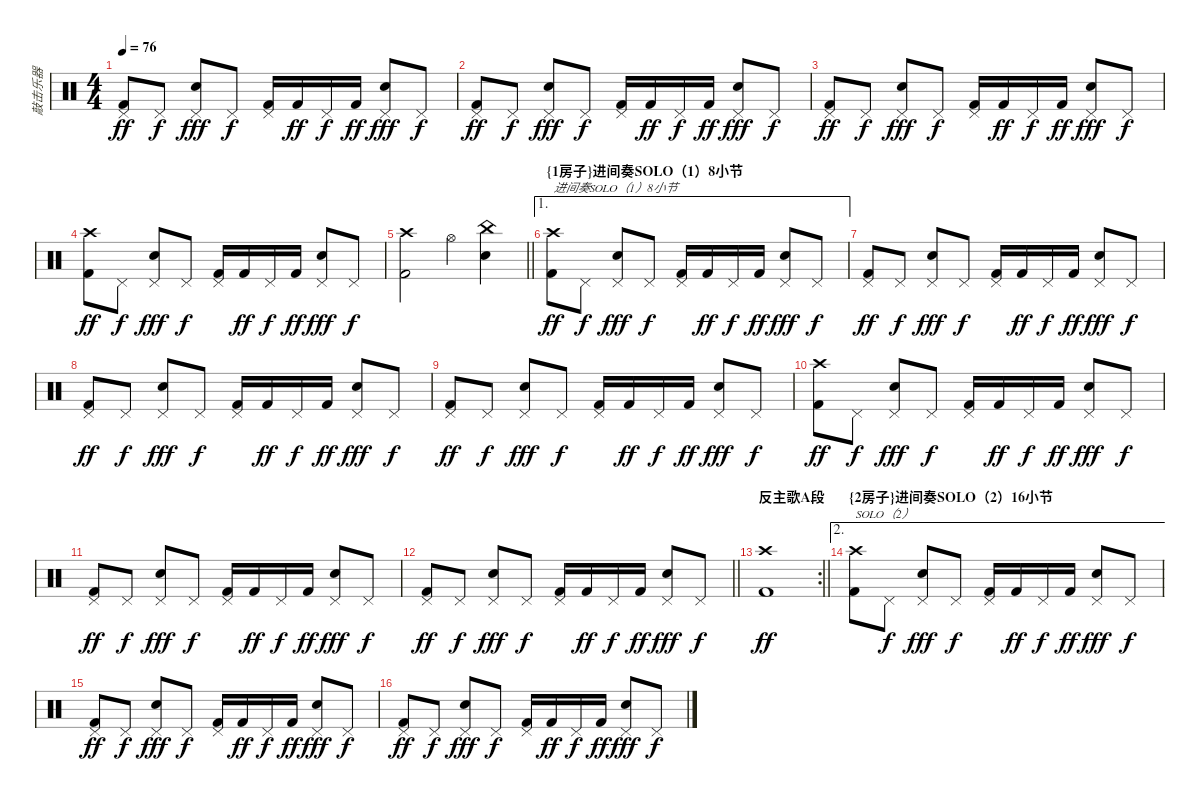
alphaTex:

\track ("敲击乐器" "敲击乐器") {instrument percussion}
\staff {score}
\articulation defaults
\ts (4 4)
\tempo 76
\clef neutral
\ks c
("Pedal Hi-Hat (hit)" "Kick (hit) 2").8{dy ff} "Pedal Hi-Hat (hit)".8{dy f} ("Pedal Hi-Hat (hit)" "Electric Snare (hit)").8{dy fff} "Pedal Hi-Hat (hit)".8{dy f} ("Pedal Hi-Hat (hit)" "Kick (hit) 2").16 "Kick (hit) 2".16{dy ff} "Pedal Hi-Hat (hit)".16{dy f} "Kick (hit) 2".16{dy ff} ("Pedal Hi-Hat (hit)" "Electric Snare (hit)").8{dy fff} "Pedal Hi-Hat (hit)".8{dy f} |
("Pedal Hi-Hat (hit)" "Kick (hit) 2").8{dy ff} "Pedal Hi-Hat (hit)".8{dy f} ("Pedal Hi-Hat (hit)" "Electric Snare (hit)").8{dy fff} "Pedal Hi-Hat (hit)".8{dy f} ("Pedal Hi-Hat (hit)" "Kick (hit) 2").16 "Kick (hit) 2".16{dy ff} "Pedal Hi-Hat (hit)".16{dy f} "Kick (hit) 2".16{dy ff} ("Pedal Hi-Hat (hit)" "Electric Snare (hit)").8{dy fff} "Pedal Hi-Hat (hit)".8{dy f} |
("Pedal Hi-Hat (hit)" "Kick (hit) 2").8{dy ff} "Pedal Hi-Hat (hit)".8{dy f} ("Pedal Hi-Hat (hit)" "Electric Snare (hit)").8{dy fff} "Pedal Hi-Hat (hit)".8{dy f} ("Pedal Hi-Hat (hit)" "Kick (hit) 2").16 "Kick (hit) 2".16{dy ff} "Pedal Hi-Hat (hit)".16{dy f} "Kick (hit) 2".16{dy ff} ("Pedal Hi-Hat (hit)" "Electric Snare (hit)").8{dy fff} "Pedal Hi-Hat (hit)".8{dy f} |
("Crash high (hit)" "Kick (hit) 2").8{dy ff} "Pedal Hi-Hat (hit)".8{dy f} ("Pedal Hi-Hat (hit)" "Electric Snare (hit)").8{dy fff} "Pedal Hi-Hat (hit)".8{dy f} ("Pedal Hi-Hat (hit)" "Kick (hit) 2").16 "Kick (hit) 2".16{dy ff} "Pedal Hi-Hat (hit)".16{dy f} "Kick (hit) 2".16{dy ff} ("Pedal Hi-Hat (hit)" "Electric Snare (hit)").8{dy fff} "Pedal Hi-Hat (hit)".8{dy f} |
\barLineRight lightlight
("Crash high (hit)" "Kick (hit) 2").2 "Hi-Hat (open)".4 ("China (hit)" "Electric Snare (hit)").4 |
\ae 1
\section ("" "{1房子}进间奏SOLO（1）8小节")
("Crash high (hit)" "Kick (hit) 2").8{txt "进间奏SOLO（1）8小节" dy ff} "Pedal Hi-Hat (hit)".8{dy f} ("Pedal Hi-Hat (hit)" "Electric Snare (hit)").8{dy fff} "Pedal Hi-Hat (hit)".8{dy f} ("Pedal Hi-Hat (hit)" "Kick (hit) 2").16 "Kick (hit) 2".16{dy ff} "Pedal Hi-Hat (hit)".16{dy f} "Kick (hit) 2".16{dy ff} ("Pedal Hi-Hat (hit)" "Electric Snare (hit)").8{dy fff} "Pedal Hi-Hat (hit)".8{dy f} |
("Pedal Hi-Hat (hit)" "Kick (hit) 2").8{dy ff} "Pedal Hi-Hat (hit)".8{dy f} ("Pedal Hi-Hat (hit)" "Electric Snare (hit)").8{dy fff} "Pedal Hi-Hat (hit)".8{dy f} ("Pedal Hi-Hat (hit)" "Kick (hit) 2").16 "Kick (hit) 2".16{dy ff} "Pedal Hi-Hat (hit)".16{dy f} "Kick (hit) 2".16{dy ff} ("Pedal Hi-Hat (hit)" "Electric Snare (hit)").8{dy fff} "Pedal Hi-Hat (hit)".8{dy f} |
("Pedal Hi-Hat (hit)" "Kick (hit) 2").8{dy ff} "Pedal Hi-Hat (hit)".8{dy f} ("Pedal Hi-Hat (hit)" "Electric Snare (hit)").8{dy fff} "Pedal Hi-Hat (hit)".8{dy f} ("Pedal Hi-Hat (hit)" "Kick (hit) 2").16 "Kick (hit) 2".16{dy ff} "Pedal Hi-Hat (hit)".16{dy f} "Kick (hit) 2".16{dy ff} ("Pedal Hi-Hat (hit)" "Electric Snare (hit)").8{dy fff} "Pedal Hi-Hat (hit)".8{dy f} |
("Pedal Hi-Hat (hit)" "Kick (hit) 2").8{dy ff} "Pedal Hi-Hat (hit)".8{dy f} ("Pedal Hi-Hat (hit)" "Electric Snare (hit)").8{dy fff} "Pedal Hi-Hat (hit)".8{dy f} ("Pedal Hi-Hat (hit)" "Kick (hit) 2").16 "Kick (hit) 2".16{dy ff} "Pedal Hi-Hat (hit)".16{dy f} "Kick (hit) 2".16{dy ff} ("Pedal Hi-Hat (hit)" "Electric Snare (hit)").8{dy fff} "Pedal Hi-Hat (hit)".8{dy f} |
("Crash high (hit)" "Kick (hit) 2").8{dy ff} "Pedal Hi-Hat (hit)".8{dy f} ("Pedal Hi-Hat (hit)" "Electric Snare (hit)").8{dy fff} "Pedal Hi-Hat (hit)".8{dy f} ("Pedal Hi-Hat (hit)" "Kick (hit) 2").16 "Kick (hit) 2".16{dy ff} "Pedal Hi-Hat (hit)".16{dy f} "Kick (hit) 2".16{dy ff} ("Pedal Hi-Hat (hit)" "Electric Snare (hit)").8{dy fff} "Pedal Hi-Hat (hit)".8{dy f} |
("Pedal Hi-Hat (hit)" "Kick (hit) 2").8{dy ff} "Pedal Hi-Hat (hit)".8{dy f} ("Pedal Hi-Hat (hit)" "Electric Snare (hit)").8{dy fff} "Pedal Hi-Hat (hit)".8{dy f} ("Pedal Hi-Hat (hit)" "Kick (hit) 2").16 "Kick (hit) 2".16{dy ff} "Pedal Hi-Hat (hit)".16{dy f} "Kick (hit) 2".16{dy ff} ("Pedal Hi-Hat (hit)" "Electric Snare (hit)").8{dy fff} "Pedal Hi-Hat (hit)".8{dy f} |
\barLineRight lightlight
("Pedal Hi-Hat (hit)" "Kick (hit) 2").8{dy ff} "Pedal Hi-Hat (hit)".8{dy f} ("Pedal Hi-Hat (hit)" "Electric Snare (hit)").8{dy fff} "Pedal Hi-Hat (hit)".8{dy f} ("Pedal Hi-Hat (hit)" "Kick (hit) 2").16 "Kick (hit) 2".16{dy ff} "Pedal Hi-Hat (hit)".16{dy f} "Kick (hit) 2".16{dy ff} ("Pedal Hi-Hat (hit)" "Electric Snare (hit)").8{dy fff} "Pedal Hi-Hat (hit)".8{dy f} |
\rc 2
\section ("" "反主歌A段")
\barLineRight lightlight
("Crash high (hit)" "Kick (hit) 2").1{dy ff} |
\ae 2
\section ("" "{2房子}进间奏SOLO（2）16小节")
("Crash high (hit)" "Kick (hit) 2").8{txt "SOLO（2）"} "Pedal Hi-Hat (hit)".8{dy f} ("Pedal Hi-Hat (hit)" "Electric Snare (hit)").8{dy fff} "Pedal Hi-Hat (hit)".8{dy f} ("Pedal Hi-Hat (hit)" "Kick (hit) 2").16 "Kick (hit) 2".16{dy ff} "Pedal Hi-Hat (hit)".16{dy f} "Kick (hit) 2".16{dy ff} ("Pedal Hi-Hat (hit)" "Electric Snare (hit)").8{dy fff} "Pedal Hi-Hat (hit)".8{dy f} |
("Pedal Hi-Hat (hit)" "Kick (hit) 2").8{dy ff} "Pedal Hi-Hat (hit)".8{dy f} ("Pedal Hi-Hat (hit)" "Electric Snare (hit)").8{dy fff} "Pedal Hi-Hat (hit)".8{dy f} ("Pedal Hi-Hat (hit)" "Kick (hit) 2").16 "Kick (hit) 2".16{dy ff} "Pedal Hi-Hat (hit)".16{dy f} "Kick (hit) 2".16{dy ff} ("Pedal Hi-Hat (hit)" "Electric Snare (hit)").8{dy fff} "Pedal Hi-Hat (hit)".8{dy f} |
("Pedal Hi-Hat (hit)" "Kick (hit) 2").8{dy ff} "Pedal Hi-Hat (hit)".8{dy f} ("Pedal Hi-Hat (hit)" "Electric Snare (hit)").8{dy fff} "Pedal Hi-Hat (hit)".8{dy f} ("Pedal Hi-Hat (hit)" "Kick (hit) 2").16 "Kick (hit) 2".16{dy ff} "Pedal Hi-Hat (hit)".16{dy f} "Kick (hit) 2".16{dy ff} ("Pedal Hi-Hat (hit)" "Electric Snare (hit)").8{dy fff} "Pedal Hi-Hat (hit)".8{dy f}
